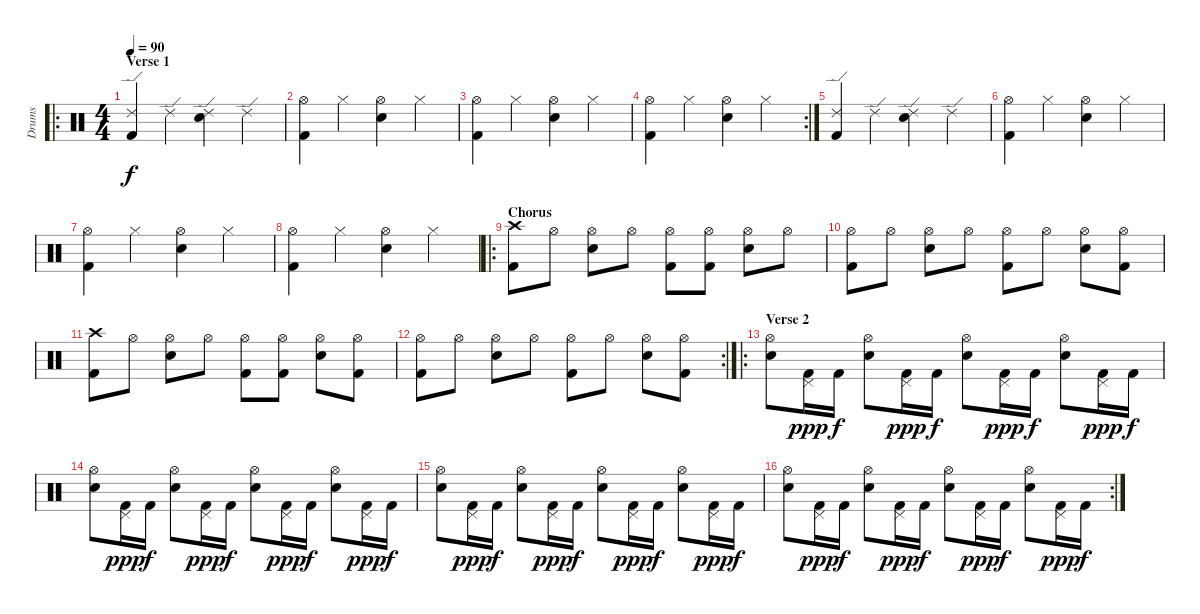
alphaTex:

\track ("Drums" "Drums") {instrument percussion}
\staff {score}
\articulation defaults
\ro
\ts (4 4)
\section ("" "Verse 1")
\tempo 90
\clef neutral
\ks c
("Ride (edge) 2" "Kick (hit) 2").4{dy f} "Ride (edge) 2".4 ("Ride (edge) 2" "Electric Snare (hit)").4 "Ride (edge) 2".4 |
("Hi-Hat (open)" "Kick (hit) 2").4 "Hi-Hat (closed)".4 ("Hi-Hat (open)" "Electric Snare (hit)").4 "Hi-Hat (closed)".4 |
("Hi-Hat (open)" "Kick (hit) 2").4 "Hi-Hat (closed)".4 ("Hi-Hat (open)" "Electric Snare (hit)").4 "Hi-Hat (closed)".4 |
\rc 2
("Hi-Hat (open)" "Kick (hit) 2").4 "Hi-Hat (closed)".4 ("Hi-Hat (open)" "Electric Snare (hit)").4 "Hi-Hat (closed)".4 |
("Ride (edge) 2" "Kick (hit) 2").4 "Ride (edge) 2".4 ("Ride (edge) 2" "Electric Snare (hit)").4 "Ride (edge) 2".4 |
("Hi-Hat (open)" "Kick (hit) 2").4 "Hi-Hat (closed)".4 ("Hi-Hat (open)" "Electric Snare (hit)").4 "Hi-Hat (closed)".4 |
("Hi-Hat (open)" "Kick (hit) 2").4 "Hi-Hat (closed)".4 ("Hi-Hat (open)" "Electric Snare (hit)").4 "Hi-Hat (closed)".4 |
("Hi-Hat (open)" "Kick (hit) 2").4 "Hi-Hat (closed)".4 ("Hi-Hat (open)" "Electric Snare (hit)").4 "Hi-Hat (closed)".4 |
\ro
\section ("" "Chorus")
("Crash high (hit)" "Kick (hit) 2").8 "Hi-Hat (open)".8 ("Hi-Hat (open)" "Electric Snare (hit)").8 "Hi-Hat (open)".8 ("Hi-Hat (open)" "Kick (hit) 2").8 ("Hi-Hat (open)" "Kick (hit) 2").8 ("Hi-Hat (open)" "Electric Snare (hit)").8 "Hi-Hat (open)".8 |
("Hi-Hat (open)" "Kick (hit) 2").8 "Hi-Hat (open)".8 ("Hi-Hat (open)" "Electric Snare (hit)").8 "Hi-Hat (open)".8 ("Hi-Hat (open)" "Kick (hit) 2").8 "Hi-Hat (open)".8 ("Hi-Hat (open)" "Electric Snare (hit)").8 ("Hi-Hat (open)" "Kick (hit) 2").8 |
("Crash high (hit)" "Kick (hit) 2").8 "Hi-Hat (open)".8 ("Hi-Hat (open)" "Electric Snare (hit)").8 "Hi-Hat (open)".8 ("Hi-Hat (open)" "Kick (hit) 2").8 ("Hi-Hat (open)" "Kick (hit) 2").8 ("Hi-Hat (open)" "Electric Snare (hit)").8 ("Hi-Hat (open)" "Kick (hit) 2").8 |
\rc 2
("Hi-Hat (open)" "Kick (hit) 2").8 "Hi-Hat (open)".8 ("Hi-Hat (open)" "Electric Snare (hit)").8 "Hi-Hat (open)".8 ("Hi-Hat (open)" "Kick (hit) 2").8 "Hi-Hat (open)".8 ("Hi-Hat (open)" "Electric Snare (hit)").8 ("Hi-Hat (open)" "Kick (hit) 2").8 |
\ro
\section ("" "Verse 2")
("Hi-Hat (open)" "Electric Snare (hit)").8 ("Kick (hit) 2" "Pedal Hi-Hat (hit)").16{dy ppp} "Kick (hit) 2".16{dy f} ("Hi-Hat (open)" "Electric Snare (hit)").8 ("Kick (hit) 2" "Pedal Hi-Hat (hit)").16{dy ppp} "Kick (hit) 2".16{dy f} ("Hi-Hat (open)" "Electric Snare (hit)").8 ("Kick (hit) 2" "Pedal Hi-Hat (hit)").16{dy ppp} "Kick (hit) 2".16{dy f} ("Hi-Hat (open)" "Electric Snare (hit)").8 ("Kick (hit) 2" "Pedal Hi-Hat (hit)").16{dy ppp} "Kick (hit) 2".16{dy f} |
("Hi-Hat (open)" "Electric Snare (hit)").8 ("Kick (hit) 2" "Pedal Hi-Hat (hit)").16{dy ppp} "Kick (hit) 2".16{dy f} ("Hi-Hat (open)" "Electric Snare (hit)").8 ("Kick (hit) 2" "Pedal Hi-Hat (hit)").16{dy ppp} "Kick (hit) 2".16{dy f} ("Hi-Hat (open)" "Electric Snare (hit)").8 ("Kick (hit) 2" "Pedal Hi-Hat (hit)").16{dy ppp} "Kick (hit) 2".16{dy f} ("Hi-Hat (open)" "Electric Snare (hit)").8 ("Kick (hit) 2" "Pedal Hi-Hat (hit)").16{dy ppp} "Kick (hit) 2".16{dy f} |
("Hi-Hat (open)" "Electric Snare (hit)").8 ("Kick (hit) 2" "Pedal Hi-Hat (hit)").16{dy ppp} "Kick (hit) 2".16{dy f} ("Hi-Hat (open)" "Electric Snare (hit)").8 ("Kick (hit) 2" "Pedal Hi-Hat (hit)").16{dy ppp} "Kick (hit) 2".16{dy f} ("Hi-Hat (open)" "Electric Snare (hit)").8 ("Kick (hit) 2" "Pedal Hi-Hat (hit)").16{dy ppp} "Kick (hit) 2".16{dy f} ("Hi-Hat (open)" "Electric Snare (hit)").8 ("Kick (hit) 2" "Pedal Hi-Hat (hit)").16{dy ppp} "Kick (hit) 2".16{dy f} |
\rc 2
("Hi-Hat (open)" "Electric Snare (hit)").8 ("Kick (hit) 2" "Pedal Hi-Hat (hit)").16{dy ppp} "Kick (hit) 2".16{dy f} ("Hi-Hat (open)" "Electric Snare (hit)").8 ("Kick (hit) 2" "Pedal Hi-Hat (hit)").16{dy ppp} "Kick (hit) 2".16{dy f} ("Hi-Hat (open)" "Electric Snare (hit)").8 ("Kick (hit) 2" "Pedal Hi-Hat (hit)").16{dy ppp} "Kick (hit) 2".16{dy f} ("Hi-Hat (open)" "Electric Snare (hit)").8 ("Kick (hit) 2" "Pedal Hi-Hat (hit)").16{dy ppp} "Kick (hit) 2".16{dy f}
